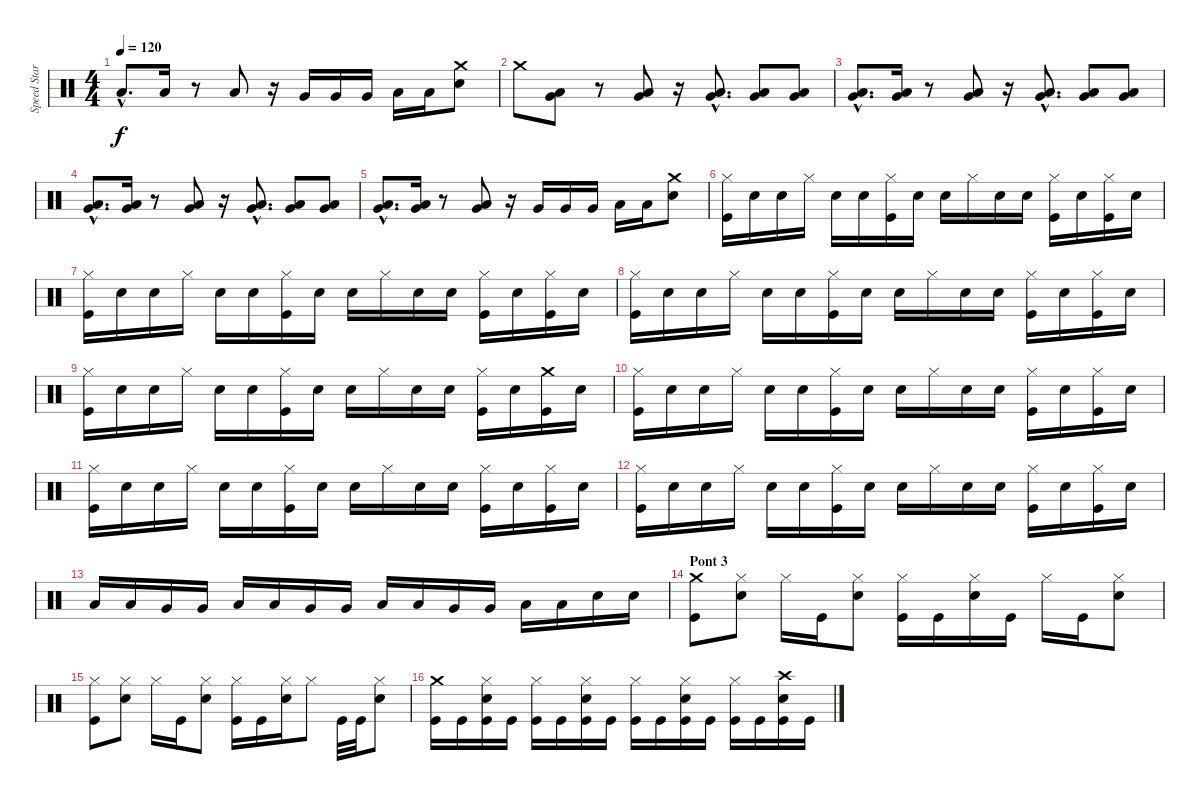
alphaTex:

\track ("Speed Star" "Speed Star") {instrument percussion}
\staff {score}
\articulation defaults
\ts (4 4)
\tempo 120
\clef neutral
\ks c "Low Floor Tom (hit)"{hac}.8{d dy f} "Low Floor Tom (hit)".16
r.8 "Low Floor Tom (hit)".8 r.16 "Very Low Tom (hit)".16 "Very Low Tom (hit)".16 "Very Low Tom (hit)".16 "Low Floor Tom (hit)".16 "Low Floor Tom (hit)".16 ("Snare (hit) 2" "Crash medium (hit)").8 |
"Crash medium (hit)".8 ("Low Floor Tom (hit)" "Very Low Tom (hit)").8 r.8 ("Low Floor Tom (hit)" "Very Low Tom (hit)").8 r.16 ("Low Floor Tom (hit)"{hac} "Very Low Tom (hit)"{hac}).8{d} ("Low Floor Tom (hit)" "Very Low Tom (hit)").8 ("Low Floor Tom (hit)" "Very Low Tom (hit)").8 |
("Low Floor Tom (hit)"{hac} "Very Low Tom (hit)"{hac}).8{d} ("Low Floor Tom (hit)" "Very Low Tom (hit)").16 r.8 ("Low Floor Tom (hit)" "Very Low Tom (hit)").8 r.16 ("Low Floor Tom (hit)"{hac} "Very Low Tom (hit)"{hac}).8{d} ("Low Floor Tom (hit)" "Very Low Tom (hit)").8 ("Low Floor Tom (hit)" "Very Low Tom (hit)").8 |
("Low Floor Tom (hit)"{hac} "Very Low Tom (hit)"{hac}).8{d} ("Low Floor Tom (hit)" "Very Low Tom (hit)").16 r.8 ("Low Floor Tom (hit)" "Very Low Tom (hit)").8 r.16 ("Low Floor Tom (hit)"{hac} "Very Low Tom (hit)"{hac}).8{d} ("Low Floor Tom (hit)" "Very Low Tom (hit)").8 ("Low Floor Tom (hit)" "Very Low Tom (hit)").8 |
("Low Floor Tom (hit)"{hac} "Very Low Tom (hit)"{hac}).8{d} ("Low Floor Tom (hit)" "Very Low Tom (hit)").16 r.8 ("Low Floor Tom (hit)" "Very Low Tom (hit)").8 r.16 "Very Low Tom (hit)".16 "Very Low Tom (hit)".16 "Very Low Tom (hit)".16 "Low Floor Tom (hit)".16 "Low Floor Tom (hit)".16 ("Snare (hit) 2" "Crash medium (hit)").8 |
("Kick (hit)" "Hi-Hat (closed)").16 "Snare (hit) 2".16 "Snare (hit) 2".16 "Hi-Hat (closed)".16 "Snare (hit) 2".16 "Snare (hit) 2".16 ("Kick (hit)" "Hi-Hat (closed)").16 "Snare (hit) 2".16 "Snare (hit) 2".16 "Hi-Hat (closed)".16 "Snare (hit) 2".16 "Snare (hit) 2".16 ("Kick (hit)" "Hi-Hat (closed)").16 "Snare (hit) 2".16 ("Kick (hit)" "Hi-Hat (closed)").16 "Snare (hit) 2".16 |
("Kick (hit)" "Hi-Hat (closed)").16 "Snare (hit) 2".16 "Snare (hit) 2".16 "Hi-Hat (closed)".16 "Snare (hit) 2".16 "Snare (hit) 2".16 ("Kick (hit)" "Hi-Hat (closed)").16 "Snare (hit) 2".16 "Snare (hit) 2".16 "Hi-Hat (closed)".16 "Snare (hit) 2".16 "Snare (hit) 2".16 ("Kick (hit)" "Hi-Hat (closed)").16 "Snare (hit) 2".16 ("Kick (hit)" "Hi-Hat (closed)").16 "Snare (hit) 2".16 |
("Kick (hit)" "Hi-Hat (closed)").16 "Snare (hit) 2".16 "Snare (hit) 2".16 "Hi-Hat (closed)".16 "Snare (hit) 2".16 "Snare (hit) 2".16 ("Kick (hit)" "Hi-Hat (closed)").16 "Snare (hit) 2".16 "Snare (hit) 2".16 "Hi-Hat (closed)".16 "Snare (hit) 2".16 "Snare (hit) 2".16 ("Kick (hit)" "Hi-Hat (closed)").16 "Snare (hit) 2".16 ("Kick (hit)" "Hi-Hat (closed)").16 "Snare (hit) 2".16 |
("Kick (hit)" "Hi-Hat (closed)").16 "Snare (hit) 2".16 "Snare (hit) 2".16 "Hi-Hat (closed)".16 "Snare (hit) 2".16 "Snare (hit) 2".16 ("Kick (hit)" "Hi-Hat (closed)").16 "Snare (hit) 2".16 "Snare (hit) 2".16 "Hi-Hat (closed)".16 "Snare (hit) 2".16 "Snare (hit) 2".16 ("Kick (hit)" "Hi-Hat (closed)").16 "Snare (hit) 2".16 ("Kick (hit)" "Crash medium (hit)").16 "Snare (hit) 2".16 |
("Kick (hit)" "Hi-Hat (closed)").16 "Snare (hit) 2".16 "Snare (hit) 2".16 "Hi-Hat (closed)".16 "Snare (hit) 2".16 "Snare (hit) 2".16 ("Kick (hit)" "Hi-Hat (closed)").16 "Snare (hit) 2".16 "Snare (hit) 2".16 "Hi-Hat (closed)".16 "Snare (hit) 2".16 "Snare (hit) 2".16 ("Kick (hit)" "Hi-Hat (closed)").16 "Snare (hit) 2".16 ("Kick (hit)" "Hi-Hat (closed)").16 "Snare (hit) 2".16 |
("Kick (hit)" "Hi-Hat (closed)").16 "Snare (hit) 2".16 "Snare (hit) 2".16 "Hi-Hat (closed)".16 "Snare (hit) 2".16 "Snare (hit) 2".16 ("Kick (hit)" "Hi-Hat (closed)").16 "Snare (hit) 2".16 "Snare (hit) 2".16 "Hi-Hat (closed)".16 "Snare (hit) 2".16 "Snare (hit) 2".16 ("Kick (hit)" "Hi-Hat (closed)").16 "Snare (hit) 2".16 ("Kick (hit)" "Hi-Hat (closed)").16 "Snare (hit) 2".16 |
("Kick (hit)" "Hi-Hat (closed)").16 "Snare (hit) 2".16 "Snare (hit) 2".16 "Hi-Hat (closed)".16 "Snare (hit) 2".16 "Snare (hit) 2".16 ("Kick (hit)" "Hi-Hat (closed)").16 "Snare (hit) 2".16 "Snare (hit) 2".16 "Hi-Hat (closed)".16 "Snare (hit) 2".16 "Snare (hit) 2".16 ("Kick (hit)" "Hi-Hat (closed)").16 "Snare (hit) 2".16 ("Kick (hit)" "Hi-Hat (closed)").16 "Snare (hit) 2".16 |
"Low Tom (hit)".16 "Low Tom (hit)".16 "Very Low Tom (hit)".16 "Very Low Tom (hit)".16 "Low Tom (hit)".16 "Low Tom (hit)".16 "Very Low Tom (hit)".16 "Very Low Tom (hit)".16 "Low Floor Tom (hit)".16 "Low Floor Tom (hit)".16 "Very Low Tom (hit)".16 "Very Low Tom (hit)".16 "Low Floor Tom (hit)".16 "Low Floor Tom (hit)".16 "Snare (hit) 2".16 "Snare (hit) 2".16 |
\section ("" "Pont 3")
("Kick (hit)" "Crash medium (hit)").8 ("Snare (hit) 2" "Hi-Hat (closed)").8 "Hi-Hat (closed)".16 "Kick (hit)".16 ("Snare (hit) 2" "Hi-Hat (closed)").8 ("Kick (hit)" "Hi-Hat (closed)").16 "Kick (hit)".16 ("Snare (hit) 2" "Hi-Hat (closed)").16 "Kick (hit)".16 "Hi-Hat (closed)".16 "Kick (hit)".16 ("Snare (hit) 2" "Hi-Hat (closed)").8 |
("Kick (hit)" "Hi-Hat (closed)").8 ("Snare (hit) 2" "Hi-Hat (closed)").8 "Hi-Hat (closed)".16 "Kick (hit)".16 ("Snare (hit) 2" "Hi-Hat (closed)").8 ("Kick (hit)" "Hi-Hat (closed)").16 "Kick (hit)".16 ("Snare (hit) 2" "Hi-Hat (closed)").16 "Hi-Hat (closed)".8 "Kick (hit)".32 "Kick (hit)".32 ("Snare (hit) 2" "Hi-Hat (closed)").8 |
("Kick (hit)" "Crash medium (hit)").16 "Kick (hit)".16 ("Kick (hit)" "Snare (hit) 2" "Hi-Hat (closed)").16 "Kick (hit)".16 ("Kick (hit)" "Hi-Hat (closed)").16 "Kick (hit)".16 ("Kick (hit)" "Snare (hit) 2" "Hi-Hat (closed)").16 "Kick (hit)".16 ("Kick (hit)" "Hi-Hat (closed)").16 "Kick (hit)".16 ("Kick (hit)" "Snare (hit) 2" "Hi-Hat (closed)").16 "Kick (hit)".16 ("Kick (hit)" "Hi-Hat (closed)").16 "Kick (hit)".16 ("Kick (hit)" "Snare (hit) 2" "Crash high (hit)").16 "Kick (hit)".16
